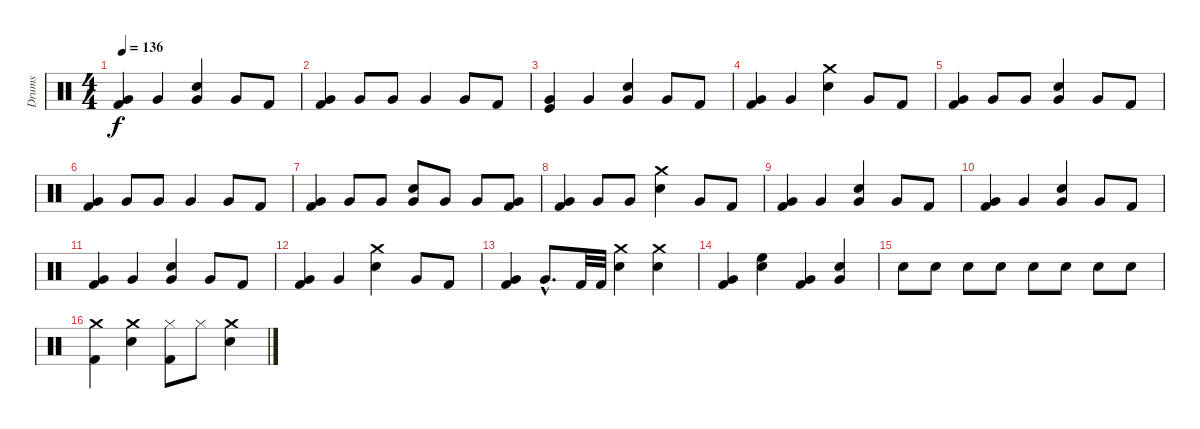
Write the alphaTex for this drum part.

\track ("Drums" "Drums") {instrument percussion}
\staff {score}
\articulation defaults
\ts (4 4)
\tempo 136
\clef neutral
\ks c
("Kick (hit) 2" "Very Low Tom (hit)").4{dy f} "Very Low Tom (hit)".4 ("Snare (hit) 2" "Very Low Tom (hit)").4 "Very Low Tom (hit)".8 "Kick (hit) 2".8 |
("Very Low Tom (hit)" "Kick (hit) 2").4 "Very Low Tom (hit)".8 "Very Low Tom (hit)".8 "Very Low Tom (hit)".4 "Very Low Tom (hit)".8 "Kick (hit) 2".8 |
("Kick (hit)" "Very Low Tom (hit)").4 "Very Low Tom (hit)".4 ("Snare (hit) 2" "Very Low Tom (hit)").4 "Very Low Tom (hit)".8 "Kick (hit) 2".8 |
("Kick (hit) 2" "Very Low Tom (hit)").4 "Very Low Tom (hit)".4 ("Crash medium (hit)" "Snare (hit) 2").4 "Very Low Tom (hit)".8 "Kick (hit) 2".8 |
("Kick (hit) 2" "Very Low Tom (hit)").4 "Very Low Tom (hit)".8 "Very Low Tom (hit)".8 ("Snare (hit) 2" "Very Low Tom (hit)").4 "Very Low Tom (hit)".8 "Kick (hit) 2".8 |
("Very Low Tom (hit)" "Kick (hit) 2").4 "Very Low Tom (hit)".8 "Very Low Tom (hit)".8 "Very Low Tom (hit)".4 "Very Low Tom (hit)".8 "Kick (hit) 2".8 |
("Very Low Tom (hit)" "Kick (hit) 2").4 "Very Low Tom (hit)".8 "Very Low Tom (hit)".8 ("Snare (hit) 2" "Very Low Tom (hit)").8 "Very Low Tom (hit)".8 "Very Low Tom (hit)".8 ("Kick (hit) 2" "Very Low Tom (hit)").8 |
("Kick (hit) 2" "Very Low Tom (hit)").4 "Very Low Tom (hit)".8 "Very Low Tom (hit)".8 ("Crash medium (hit)" "Snare (hit) 2").4 "Very Low Tom (hit)".8 "Kick (hit) 2".8 |
("Kick (hit) 2" "Very Low Tom (hit)").4 "Very Low Tom (hit)".4 ("Snare (hit) 2" "Very Low Tom (hit)").4 "Very Low Tom (hit)".8 "Kick (hit) 2".8 |
("Kick (hit) 2" "Very Low Tom (hit)").4 "Very Low Tom (hit)".4 ("Snare (hit) 2" "Very Low Tom (hit)").4 "Very Low Tom (hit)".8 "Kick (hit) 2".8 |
("Kick (hit) 2" "Very Low Tom (hit)").4 "Very Low Tom (hit)".4 ("Snare (hit) 2" "Very Low Tom (hit)").4 "Very Low Tom (hit)".8 "Kick (hit) 2".8 |
("Kick (hit) 2" "Very Low Tom (hit)").4 "Very Low Tom (hit)".4 ("Crash medium (hit)" "Snare (hit) 2").4 "Very Low Tom (hit)".8 "Kick (hit) 2".8 |
("Very Low Tom (hit)" "Kick (hit) 2").4 "Very Low Tom (hit)"{hac}.8{d} "Kick (hit) 2".32 "Kick (hit) 2".32 ("Snare (hit) 2" "Crash medium (hit)").4 ("Snare (hit) 2" "Crash medium (hit)").4 |
("Very Low Tom (hit)" "Kick (hit) 2").4 ("High Floor Tom (hit)" "Snare (hit) 2").4 ("Very Low Tom (hit)" "Kick (hit) 2").4 ("Snare (hit) 2" "Very Low Tom (hit)").4 |
"Snare (hit) 2".8 "Snare (hit) 2".8 "Snare (hit) 2".8 "Snare (hit) 2".8 "Snare (hit) 2".8 "Snare (hit) 2".8 "Snare (hit) 2".8 "Snare (hit) 2".8 |
("Kick (hit) 2" "Crash medium (hit)").4 ("Snare (hit) 2" "Crash medium (hit)").4 ("Kick (hit) 2" "Hi-Hat (closed)").8 "Hi-Hat (closed)".8 ("Crash medium (hit)" "Snare (hit) 2").4
